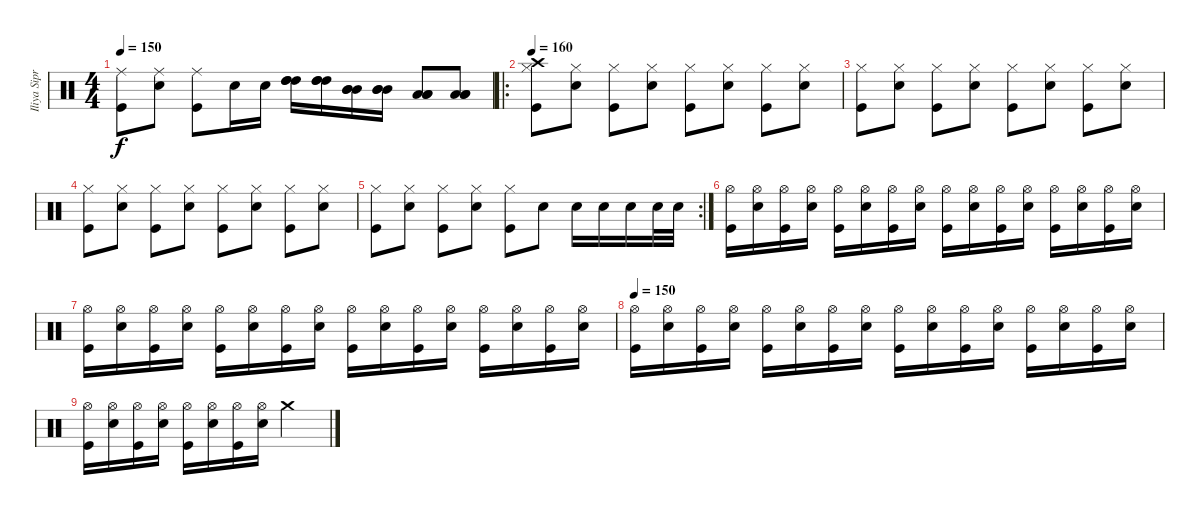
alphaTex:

\track ("Iliya Siprov (DRUMS)" "Iliya Sipr") {instrument percussion}
\staff {score}
\articulation defaults
\ts (4 4)
\tempo 150
\clef neutral
\ks c
("Ride (middle)" "Kick (hit)").8{dy f} ("Ride (middle)" "Electric Snare (hit)").8 ("Ride (middle)" "Kick (hit)").8 "Electric Snare (hit)".16 "Electric Snare (hit)".16 ("High Tom (hit)" "High Tom (hit)" "High Tom (hit)").16 ("High Tom (hit)" "High Tom (hit)" "High Tom (hit)").16 ("Mid Tom (hit)" "Mid Tom (hit)" "Mid Tom (hit)").16 ("Mid Tom (hit)" "Mid Tom (hit)" "Mid Tom (hit)").16 ("Low Floor Tom (hit)" "Low Floor Tom (hit)" "Low Floor Tom (hit)").8 ("Low Floor Tom (hit)" "Low Floor Tom (hit)" "Low Floor Tom (hit)").8 |
\ro
\tempo 160
("Hi-Hat (closed)" "Crash high (hit)" "Kick (hit)").8 ("Hi-Hat (closed)" "Electric Snare (hit)").8 ("Hi-Hat (closed)" "Kick (hit)").8 ("Hi-Hat (closed)" "Electric Snare (hit)").8 ("Hi-Hat (closed)" "Kick (hit)").8 ("Hi-Hat (closed)" "Electric Snare (hit)").8 ("Hi-Hat (closed)" "Kick (hit)").8 ("Hi-Hat (closed)" "Electric Snare (hit)").8 |
("Hi-Hat (closed)" "Kick (hit)").8 ("Hi-Hat (closed)" "Electric Snare (hit)").8 ("Hi-Hat (closed)" "Kick (hit)").8 ("Hi-Hat (closed)" "Electric Snare (hit)").8 ("Hi-Hat (closed)" "Kick (hit)").8 ("Hi-Hat (closed)" "Electric Snare (hit)").8 ("Hi-Hat (closed)" "Kick (hit)").8 ("Hi-Hat (closed)" "Electric Snare (hit)").8 |
("Hi-Hat (closed)" "Kick (hit)").8 ("Hi-Hat (closed)" "Electric Snare (hit)").8 ("Hi-Hat (closed)" "Kick (hit)").8 ("Hi-Hat (closed)" "Electric Snare (hit)").8 ("Hi-Hat (closed)" "Kick (hit)").8 ("Hi-Hat (closed)" "Electric Snare (hit)").8 ("Hi-Hat (closed)" "Kick (hit)").8 ("Hi-Hat (closed)" "Electric Snare (hit)").8 |
\rc 2
("Hi-Hat (closed)" "Kick (hit)").8 ("Hi-Hat (closed)" "Electric Snare (hit)").8 ("Hi-Hat (closed)" "Kick (hit)").8 ("Hi-Hat (closed)" "Electric Snare (hit)").8 ("Hi-Hat (closed)" "Kick (hit)").8 "Electric Snare (hit)".8 "Electric Snare (hit)".16 "Electric Snare (hit)".16 "Electric Snare (hit)".16 "Electric Snare (hit)".32 "Electric Snare (hit)".32 |
("Hi-Hat (open)" "Kick (hit)").16 ("Hi-Hat (open)" "Electric Snare (hit)").16 ("Hi-Hat (open)" "Kick (hit)").16 ("Hi-Hat (open)" "Electric Snare (hit)").16 ("Hi-Hat (open)" "Kick (hit)").16 ("Hi-Hat (open)" "Electric Snare (hit)").16 ("Hi-Hat (open)" "Kick (hit)").16 ("Hi-Hat (open)" "Electric Snare (hit)").16 ("Hi-Hat (open)" "Kick (hit)").16 ("Hi-Hat (open)" "Electric Snare (hit)").16 ("Hi-Hat (open)" "Kick (hit)").16 ("Hi-Hat (open)" "Electric Snare (hit)").16 ("Hi-Hat (open)" "Kick (hit)").16 ("Hi-Hat (open)" "Electric Snare (hit)").16 ("Hi-Hat (open)" "Kick (hit)").16 ("Hi-Hat (open)" "Electric Snare (hit)").16 |
("Hi-Hat (open)" "Kick (hit)").16 ("Hi-Hat (open)" "Electric Snare (hit)").16 ("Hi-Hat (open)" "Kick (hit)").16 ("Hi-Hat (open)" "Electric Snare (hit)").16 ("Hi-Hat (open)" "Kick (hit)").16 ("Hi-Hat (open)" "Electric Snare (hit)").16 ("Hi-Hat (open)" "Kick (hit)").16 ("Hi-Hat (open)" "Electric Snare (hit)").16 ("Hi-Hat (open)" "Kick (hit)").16 ("Hi-Hat (open)" "Electric Snare (hit)").16 ("Hi-Hat (open)" "Kick (hit)").16 ("Hi-Hat (open)" "Electric Snare (hit)").16 ("Hi-Hat (open)" "Kick (hit)").16 ("Hi-Hat (open)" "Electric Snare (hit)").16 ("Hi-Hat (open)" "Kick (hit)").16 ("Hi-Hat (open)" "Electric Snare (hit)").16 |
\tempo 150
("Hi-Hat (open)" "Kick (hit)").16 ("Hi-Hat (open)" "Electric Snare (hit)").16 ("Hi-Hat (open)" "Kick (hit)").16 ("Hi-Hat (open)" "Electric Snare (hit)").16 ("Hi-Hat (open)" "Kick (hit)").16 ("Hi-Hat (open)" "Electric Snare (hit)").16 ("Hi-Hat (open)" "Kick (hit)").16 ("Hi-Hat (open)" "Electric Snare (hit)").16 ("Hi-Hat (open)" "Kick (hit)").16 ("Hi-Hat (open)" "Electric Snare (hit)").16 ("Hi-Hat (open)" "Kick (hit)").16 ("Hi-Hat (open)" "Electric Snare (hit)").16 ("Hi-Hat (open)" "Kick (hit)").16 ("Hi-Hat (open)" "Electric Snare (hit)").16 ("Hi-Hat (open)" "Kick (hit)").16 ("Hi-Hat (open)" "Electric Snare (hit)").16 |
("Hi-Hat (open)" "Kick (hit)").16 ("Hi-Hat (open)" "Electric Snare (hit)").16 ("Hi-Hat (open)" "Kick (hit)").16 ("Hi-Hat (open)" "Electric Snare (hit)").16 ("Hi-Hat (open)" "Kick (hit)").16 ("Hi-Hat (open)" "Electric Snare (hit)").16 ("Hi-Hat (open)" "Kick (hit)").16 ("Hi-Hat (open)" "Electric Snare (hit)").16 "Crash medium (hit)".2
